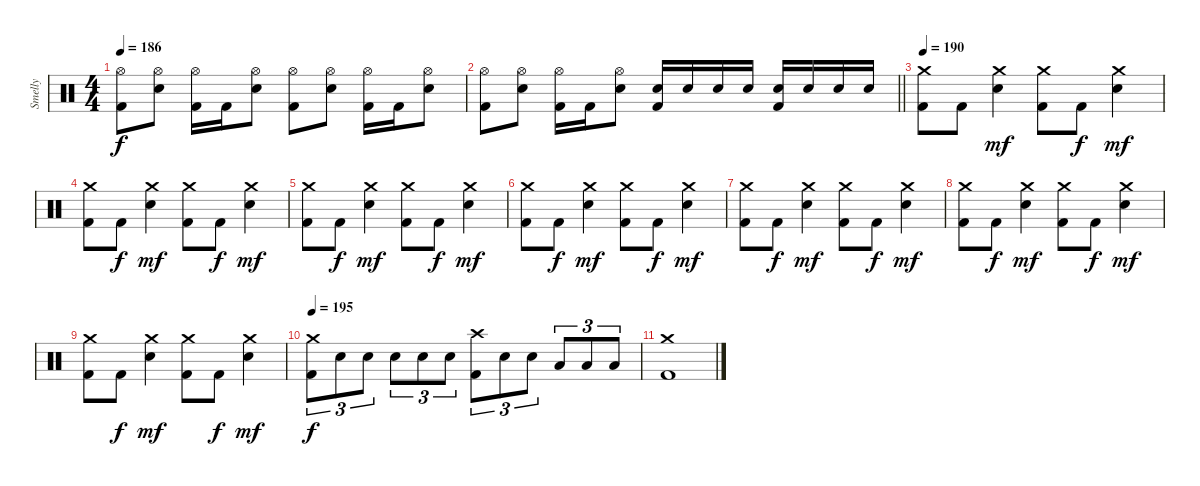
\track ("Smelly" "Smelly") {instrument percussion}
\staff {score}
\articulation defaults
\ts (4 4)
\tempo 186
\clef neutral
\ks c
("Hi-Hat (open)" "Kick (hit) 2").8{dy f} ("Hi-Hat (open)" "Electric Snare (hit)").8 ("Hi-Hat (open)" "Kick (hit) 2").16 "Kick (hit) 2".16 ("Hi-Hat (open)" "Electric Snare (hit)").8 ("Hi-Hat (open)" "Kick (hit) 2").8 ("Hi-Hat (open)" "Electric Snare (hit)").8 ("Hi-Hat (open)" "Kick (hit) 2").16 "Kick (hit) 2".16 ("Hi-Hat (open)" "Electric Snare (hit)").8 |
\barLineRight lightlight
("Hi-Hat (open)" "Kick (hit) 2").8 ("Hi-Hat (open)" "Electric Snare (hit)").8 ("Hi-Hat (open)" "Kick (hit) 2").16 "Kick (hit) 2".16 ("Hi-Hat (open)" "Electric Snare (hit)").8 ("Electric Snare (hit)" "Kick (hit) 2").16 "Electric Snare (hit)".16 "Electric Snare (hit)".16 "Electric Snare (hit)".16 ("Electric Snare (hit)" "Kick (hit) 2").16 "Electric Snare (hit)".16 "Electric Snare (hit)".16 "Electric Snare (hit)".16 |
\section ("" "")
\tempo 190
("Crash medium (hit)" "Kick (hit) 2").8 "Kick (hit) 2".8 ("Crash medium (hit)" "Electric Snare (hit)").4{dy mf} ("Crash medium (hit)" "Kick (hit) 2").8 "Kick (hit) 2".8{dy f} ("Crash medium (hit)" "Electric Snare (hit)").4{dy mf} |
("Crash medium (hit)" "Kick (hit) 2").8 "Kick (hit) 2".8{dy f} ("Crash medium (hit)" "Electric Snare (hit)").4{dy mf} ("Crash medium (hit)" "Kick (hit) 2").8 "Kick (hit) 2".8{dy f} ("Crash medium (hit)" "Electric Snare (hit)").4{dy mf} |
("Crash medium (hit)" "Kick (hit) 2").8 "Kick (hit) 2".8{dy f} ("Crash medium (hit)" "Electric Snare (hit)").4{dy mf} ("Crash medium (hit)" "Kick (hit) 2").8 "Kick (hit) 2".8{dy f} ("Crash medium (hit)" "Electric Snare (hit)").4{dy mf} |
("Crash medium (hit)" "Kick (hit) 2").8 "Kick (hit) 2".8{dy f} ("Crash medium (hit)" "Electric Snare (hit)").4{dy mf} ("Crash medium (hit)" "Kick (hit) 2").8 "Kick (hit) 2".8{dy f} ("Crash medium (hit)" "Electric Snare (hit)").4{dy mf} |
("Crash medium (hit)" "Kick (hit) 2").8 "Kick (hit) 2".8{dy f} ("Crash medium (hit)" "Electric Snare (hit)").4{dy mf} ("Crash medium (hit)" "Kick (hit) 2").8 "Kick (hit) 2".8{dy f} ("Crash medium (hit)" "Electric Snare (hit)").4{dy mf} |
("Crash medium (hit)" "Kick (hit) 2").8 "Kick (hit) 2".8{dy f} ("Crash medium (hit)" "Electric Snare (hit)").4{dy mf} ("Crash medium (hit)" "Kick (hit) 2").8 "Kick (hit) 2".8{dy f} ("Crash medium (hit)" "Electric Snare (hit)").4{dy mf} |
("Crash medium (hit)" "Kick (hit) 2").8 "Kick (hit) 2".8{dy f} ("Crash medium (hit)" "Electric Snare (hit)").4{dy mf} ("Crash medium (hit)" "Kick (hit) 2").8 "Kick (hit) 2".8{dy f} ("Crash medium (hit)" "Electric Snare (hit)").4{dy mf} |
\tempo 195
("Crash medium (hit)" "Kick (hit) 2").8{tu (3 2) dy f} "Electric Snare (hit)".8{tu (3 2)} "Electric Snare (hit)".8{tu (3 2)} "Electric Snare (hit)".8{tu (3 2)} "Electric Snare (hit)".8{tu (3 2)} "Electric Snare (hit)".8{tu (3 2)} ("Crash high (hit)" "Kick (hit) 2").8{tu (3 2)} "Electric Snare (hit)".8{tu (3 2)} "Electric Snare (hit)".8{tu (3 2)} "Low Tom (hit)".8{tu (3 2)} "Low Tom (hit)".8{tu (3 2)} "Low Floor Tom (hit)".8{tu (3 2)} |
("Crash medium (hit)" "Kick (hit) 2").1
